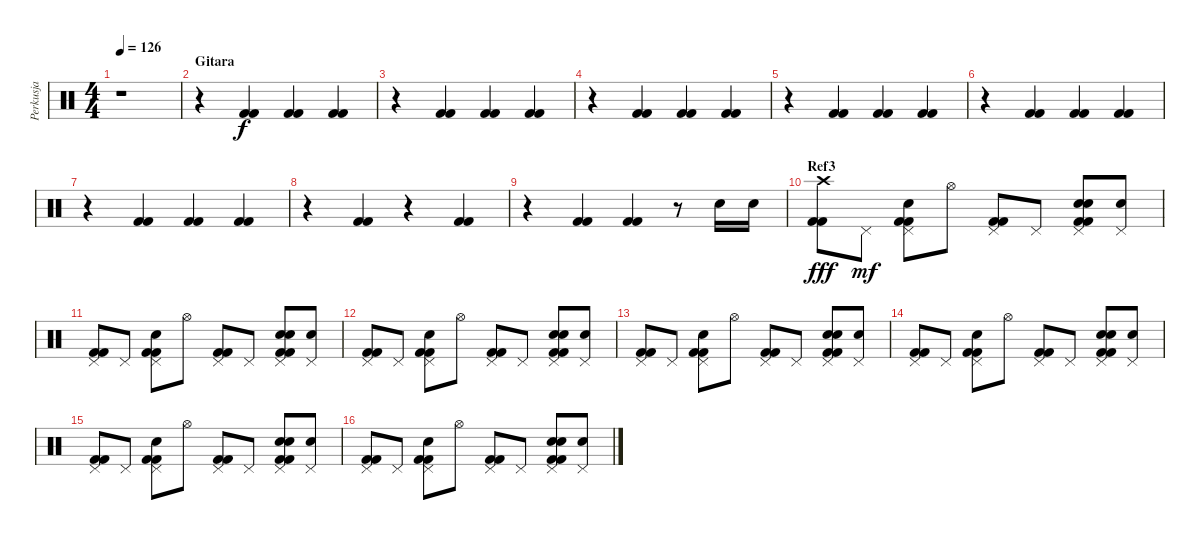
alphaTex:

\track ("Perkusja" "Perkusja") {instrument percussion}
\staff {score}
\articulation defaults
\ts (4 4)
\tempo 126
\clef neutral
\ks c
r.1{dy mf} |
\section ("" "Gitara")
r.4 ("Kick (hit) 2" "Kick (hit) 2").4{dy f} ("Kick (hit) 2" "Kick (hit) 2").4 ("Kick (hit) 2" "Kick (hit) 2").4 |
r.4 ("Kick (hit) 2" "Kick (hit) 2").4 ("Kick (hit) 2" "Kick (hit) 2").4 ("Kick (hit) 2" "Kick (hit) 2").4 |
r.4 ("Kick (hit) 2" "Kick (hit) 2").4 ("Kick (hit) 2" "Kick (hit) 2").4 ("Kick (hit) 2" "Kick (hit) 2").4 |
r.4 ("Kick (hit) 2" "Kick (hit) 2").4 ("Kick (hit) 2" "Kick (hit) 2").4 ("Kick (hit) 2" "Kick (hit) 2").4 |
r.4 ("Kick (hit) 2" "Kick (hit) 2").4 ("Kick (hit) 2" "Kick (hit) 2").4 ("Kick (hit) 2" "Kick (hit) 2").4 |
r.4 ("Kick (hit) 2" "Kick (hit) 2").4 ("Kick (hit) 2" "Kick (hit) 2").4 ("Kick (hit) 2" "Kick (hit) 2").4 |
r.4 ("Kick (hit) 2" "Kick (hit) 2").4 r.4 ("Kick (hit) 2" "Kick (hit) 2").4 |
r.4 ("Kick (hit) 2" "Kick (hit) 2").4 ("Kick (hit) 2" "Kick (hit) 2").4 r.8 "Snare (hit) 2".16 "Snare (hit) 2".16 |
\section ("" "Ref3")
("Crash high (hit)" "Kick (hit) 2" "Kick (hit) 2").8{dy fff} "Pedal Hi-Hat (hit)".8{dy mf} ("Pedal Hi-Hat (hit)" "Snare (hit) 2" "Kick (hit) 2" "Kick (hit) 2").8 "Hi-Hat (open)".8 ("Pedal Hi-Hat (hit)" "Kick (hit) 2" "Kick (hit) 2").8 "Pedal Hi-Hat (hit)".8 ("Pedal Hi-Hat (hit)" "Hand Clap (hit)" "Snare (hit) 2" "Kick (hit) 2" "Kick (hit) 2").8 ("Pedal Hi-Hat (hit)" "Hand Clap (hit)").8 |
("Pedal Hi-Hat (hit)" "Kick (hit) 2" "Kick (hit) 2").8 "Pedal Hi-Hat (hit)".8 ("Pedal Hi-Hat (hit)" "Snare (hit) 2" "Kick (hit) 2" "Kick (hit) 2").8 "Hi-Hat (open)".8 ("Pedal Hi-Hat (hit)" "Kick (hit) 2" "Kick (hit) 2").8 "Pedal Hi-Hat (hit)".8 ("Pedal Hi-Hat (hit)" "Hand Clap (hit)" "Snare (hit) 2" "Kick (hit) 2" "Kick (hit) 2").8 ("Pedal Hi-Hat (hit)" "Hand Clap (hit)").8 |
("Pedal Hi-Hat (hit)" "Kick (hit) 2" "Kick (hit) 2").8 "Pedal Hi-Hat (hit)".8 ("Pedal Hi-Hat (hit)" "Snare (hit) 2" "Kick (hit) 2" "Kick (hit) 2").8 "Hi-Hat (open)".8 ("Pedal Hi-Hat (hit)" "Kick (hit) 2" "Kick (hit) 2").8 "Pedal Hi-Hat (hit)".8 ("Pedal Hi-Hat (hit)" "Hand Clap (hit)" "Snare (hit) 2" "Kick (hit) 2" "Kick (hit) 2").8 ("Pedal Hi-Hat (hit)" "Hand Clap (hit)").8 |
("Pedal Hi-Hat (hit)" "Kick (hit) 2" "Kick (hit) 2").8 "Pedal Hi-Hat (hit)".8 ("Pedal Hi-Hat (hit)" "Snare (hit) 2" "Kick (hit) 2" "Kick (hit) 2").8 "Hi-Hat (open)".8 ("Pedal Hi-Hat (hit)" "Kick (hit) 2" "Kick (hit) 2").8 "Pedal Hi-Hat (hit)".8 ("Pedal Hi-Hat (hit)" "Hand Clap (hit)" "Snare (hit) 2" "Kick (hit) 2" "Kick (hit) 2").8 ("Pedal Hi-Hat (hit)" "Hand Clap (hit)").8 |
("Pedal Hi-Hat (hit)" "Kick (hit) 2" "Kick (hit) 2").8 "Pedal Hi-Hat (hit)".8 ("Pedal Hi-Hat (hit)" "Snare (hit) 2" "Kick (hit) 2" "Kick (hit) 2").8 "Hi-Hat (open)".8 ("Pedal Hi-Hat (hit)" "Kick (hit) 2" "Kick (hit) 2").8 "Pedal Hi-Hat (hit)".8 ("Pedal Hi-Hat (hit)" "Hand Clap (hit)" "Snare (hit) 2" "Kick (hit) 2" "Kick (hit) 2").8 ("Pedal Hi-Hat (hit)" "Hand Clap (hit)").8 |
("Pedal Hi-Hat (hit)" "Kick (hit) 2" "Kick (hit) 2").8 "Pedal Hi-Hat (hit)".8 ("Pedal Hi-Hat (hit)" "Snare (hit) 2" "Kick (hit) 2" "Kick (hit) 2").8 "Hi-Hat (open)".8 ("Pedal Hi-Hat (hit)" "Kick (hit) 2" "Kick (hit) 2").8 "Pedal Hi-Hat (hit)".8 ("Pedal Hi-Hat (hit)" "Hand Clap (hit)" "Snare (hit) 2" "Kick (hit) 2" "Kick (hit) 2").8 ("Pedal Hi-Hat (hit)" "Hand Clap (hit)").8 |
("Pedal Hi-Hat (hit)" "Kick (hit) 2" "Kick (hit) 2").8 "Pedal Hi-Hat (hit)".8 ("Pedal Hi-Hat (hit)" "Snare (hit) 2" "Kick (hit) 2" "Kick (hit) 2").8 "Hi-Hat (open)".8 ("Pedal Hi-Hat (hit)" "Kick (hit) 2" "Kick (hit) 2").8 "Pedal Hi-Hat (hit)".8 ("Pedal Hi-Hat (hit)" "Hand Clap (hit)" "Snare (hit) 2" "Kick (hit) 2" "Kick (hit) 2").8 ("Pedal Hi-Hat (hit)" "Hand Clap (hit)").8
